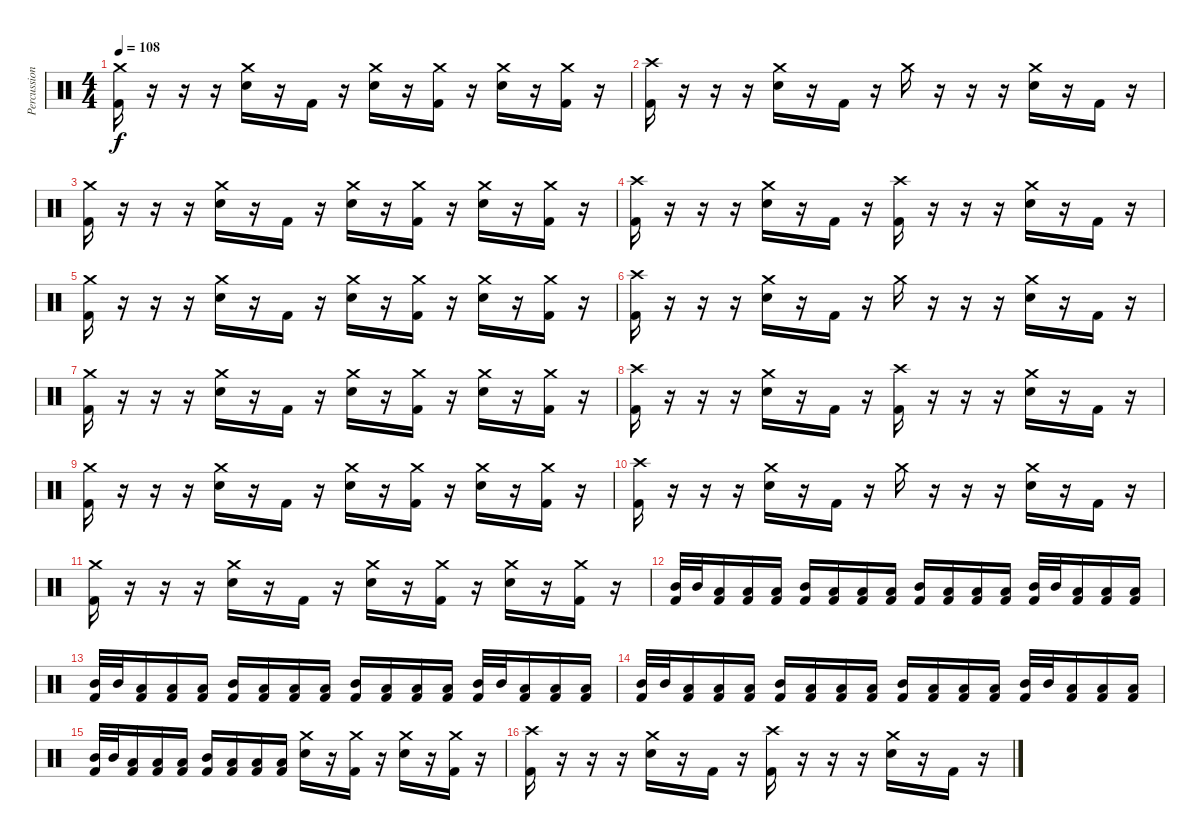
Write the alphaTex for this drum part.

\track ("Percussion" "Percussion") {instrument percussion}
\staff {score}
\articulation defaults
\ts (4 4)
\tempo 108
\clef neutral
\ks c
("Crash medium (hit)" "Kick (hit) 2").16{dy f} r.16 r.16 r.16 ("Crash medium (hit)" "Electric Snare (hit)").16 r.16 "Kick (hit) 2".16 r.16 ("Crash medium (hit)" "Electric Snare (hit)").16 r.16 ("Crash medium (hit)" "Kick (hit) 2").16 r.16 ("Crash medium (hit)" "Electric Snare (hit)").16 r.16 ("Crash medium (hit)" "Kick (hit) 2").16 r.16 |
("Crash high (hit)" "Kick (hit) 2").16 r.16 r.16 r.16 ("Crash medium (hit)" "Electric Snare (hit)").16 r.16 "Kick (hit) 2".16 r.16 "Crash medium (hit)".16 r.16 r.16 r.16 ("Crash medium (hit)" "Electric Snare (hit)").16 r.16 "Kick (hit) 2".16 r.16 |
("Crash medium (hit)" "Kick (hit) 2").16 r.16 r.16 r.16 ("Crash medium (hit)" "Electric Snare (hit)").16 r.16 "Kick (hit) 2".16 r.16 ("Crash medium (hit)" "Electric Snare (hit)").16 r.16 ("Crash medium (hit)" "Kick (hit) 2").16 r.16 ("Crash medium (hit)" "Electric Snare (hit)").16 r.16 ("Crash medium (hit)" "Kick (hit) 2").16 r.16 |
("Crash high (hit)" "Kick (hit) 2").16 r.16 r.16 r.16 ("Crash medium (hit)" "Electric Snare (hit)").16 r.16 "Kick (hit) 2".16 r.16 ("Crash high (hit)" "Kick (hit) 2").16 r.16 r.16 r.16 ("Crash medium (hit)" "Electric Snare (hit)").16 r.16 "Kick (hit) 2".16 r.16 |
("Crash medium (hit)" "Kick (hit) 2").16 r.16 r.16 r.16 ("Crash medium (hit)" "Electric Snare (hit)").16 r.16 "Kick (hit) 2".16 r.16 ("Crash medium (hit)" "Electric Snare (hit)").16 r.16 ("Crash medium (hit)" "Kick (hit) 2").16 r.16 ("Crash medium (hit)" "Electric Snare (hit)").16 r.16 ("Crash medium (hit)" "Kick (hit) 2").16 r.16 |
("Crash high (hit)" "Kick (hit) 2").16 r.16 r.16 r.16 ("Crash medium (hit)" "Electric Snare (hit)").16 r.16 "Kick (hit) 2".16 r.16 "Crash medium (hit)".16 r.16 r.16 r.16 ("Crash medium (hit)" "Electric Snare (hit)").16 r.16 "Kick (hit) 2".16 r.16 |
("Crash medium (hit)" "Kick (hit) 2").16 r.16 r.16 r.16 ("Crash medium (hit)" "Electric Snare (hit)").16 r.16 "Kick (hit) 2".16 r.16 ("Crash medium (hit)" "Electric Snare (hit)").16 r.16 ("Crash medium (hit)" "Kick (hit) 2").16 r.16 ("Crash medium (hit)" "Electric Snare (hit)").16 r.16 ("Crash medium (hit)" "Kick (hit) 2").16 r.16 |
("Crash high (hit)" "Kick (hit) 2").16 r.16 r.16 r.16 ("Crash medium (hit)" "Electric Snare (hit)").16 r.16 "Kick (hit) 2".16 r.16 ("Crash high (hit)" "Kick (hit) 2").16 r.16 r.16 r.16 ("Crash medium (hit)" "Electric Snare (hit)").16 r.16 "Kick (hit) 2".16 r.16 |
("Crash medium (hit)" "Kick (hit) 2").16 r.16 r.16 r.16 ("Crash medium (hit)" "Electric Snare (hit)").16 r.16 "Kick (hit) 2".16 r.16 ("Crash medium (hit)" "Electric Snare (hit)").16 r.16 ("Crash medium (hit)" "Kick (hit) 2").16 r.16 ("Crash medium (hit)" "Electric Snare (hit)").16 r.16 ("Crash medium (hit)" "Kick (hit) 2").16 r.16 |
("Crash high (hit)" "Kick (hit) 2").16 r.16 r.16 r.16 ("Crash medium (hit)" "Electric Snare (hit)").16 r.16 "Kick (hit) 2".16 r.16 "Crash medium (hit)".16 r.16 r.16 r.16 ("Crash medium (hit)" "Electric Snare (hit)").16 r.16 "Kick (hit) 2".16 r.16 |
("Crash medium (hit)" "Kick (hit) 2").16 r.16 r.16 r.16 ("Crash medium (hit)" "Electric Snare (hit)").16 r.16 "Kick (hit) 2".16 r.16 ("Crash medium (hit)" "Electric Snare (hit)").16 r.16 ("Crash medium (hit)" "Kick (hit) 2").16 r.16 ("Crash medium (hit)" "Electric Snare (hit)").16 r.16 ("Crash medium (hit)" "Kick (hit) 2").16 r.16 |
("Mid Tom (hit)" "Kick (hit) 2").32 "Mid Tom (hit)".32 ("Low Tom (hit)" "Kick (hit) 2").16 ("Low Floor Tom (hit)" "Kick (hit) 2").16 ("Low Floor Tom (hit)" "Kick (hit) 2").16 ("Mid Tom (hit)" "Kick (hit) 2").16 ("Low Tom (hit)" "Kick (hit) 2").16 ("Low Floor Tom (hit)" "Kick (hit) 2").16 ("Low Floor Tom (hit)" "Kick (hit) 2").16 ("Mid Tom (hit)" "Kick (hit) 2").16 ("Low Tom (hit)" "Kick (hit) 2").16 ("Low Floor Tom (hit)" "Kick (hit) 2").16 ("Low Floor Tom (hit)" "Kick (hit) 2").16 ("Mid Tom (hit)" "Kick (hit) 2").32 "Mid Tom (hit)".32 ("Low Tom (hit)" "Kick (hit) 2").16 ("Low Floor Tom (hit)" "Kick (hit) 2").16 ("Low Floor Tom (hit)" "Kick (hit) 2").16 |
("Mid Tom (hit)" "Kick (hit) 2").32 "Mid Tom (hit)".32 ("Low Tom (hit)" "Kick (hit) 2").16 ("Low Floor Tom (hit)" "Kick (hit) 2").16 ("Low Floor Tom (hit)" "Kick (hit) 2").16 ("Mid Tom (hit)" "Kick (hit) 2").16 ("Low Tom (hit)" "Kick (hit) 2").16 ("Low Floor Tom (hit)" "Kick (hit) 2").16 ("Low Floor Tom (hit)" "Kick (hit) 2").16 ("Mid Tom (hit)" "Kick (hit) 2").16 ("Low Tom (hit)" "Kick (hit) 2").16 ("Low Floor Tom (hit)" "Kick (hit) 2").16 ("Low Floor Tom (hit)" "Kick (hit) 2").16 ("Mid Tom (hit)" "Kick (hit) 2").32 "Mid Tom (hit)".32 ("Low Tom (hit)" "Kick (hit) 2").16 ("Low Floor Tom (hit)" "Kick (hit) 2").16 ("Low Floor Tom (hit)" "Kick (hit) 2").16 |
("Mid Tom (hit)" "Kick (hit) 2").32 "Mid Tom (hit)".32 ("Low Tom (hit)" "Kick (hit) 2").16 ("Low Floor Tom (hit)" "Kick (hit) 2").16 ("Low Floor Tom (hit)" "Kick (hit) 2").16 ("Mid Tom (hit)" "Kick (hit) 2").16 ("Low Tom (hit)" "Kick (hit) 2").16 ("Low Floor Tom (hit)" "Kick (hit) 2").16 ("Low Floor Tom (hit)" "Kick (hit) 2").16 ("Mid Tom (hit)" "Kick (hit) 2").16 ("Low Tom (hit)" "Kick (hit) 2").16 ("Low Floor Tom (hit)" "Kick (hit) 2").16 ("Low Floor Tom (hit)" "Kick (hit) 2").16 ("Mid Tom (hit)" "Kick (hit) 2").32 "Mid Tom (hit)".32 ("Low Tom (hit)" "Kick (hit) 2").16 ("Low Floor Tom (hit)" "Kick (hit) 2").16 ("Low Floor Tom (hit)" "Kick (hit) 2").16 |
("Mid Tom (hit)" "Kick (hit) 2").32 "Mid Tom (hit)".32 ("Low Tom (hit)" "Kick (hit) 2").16 ("Low Floor Tom (hit)" "Kick (hit) 2").16 ("Low Floor Tom (hit)" "Kick (hit) 2").16 ("Mid Tom (hit)" "Kick (hit) 2").16 ("Low Tom (hit)" "Kick (hit) 2").16 ("Low Floor Tom (hit)" "Kick (hit) 2").16 ("Low Floor Tom (hit)" "Kick (hit) 2").16 ("Crash medium (hit)" "Electric Snare (hit)").16 r.16 ("Crash medium (hit)" "Kick (hit) 2").16 r.16 ("Crash medium (hit)" "Electric Snare (hit)").16 r.16 ("Crash medium (hit)" "Kick (hit) 2").16 r.16 |
("Crash high (hit)" "Kick (hit) 2").16 r.16 r.16 r.16 ("Crash medium (hit)" "Electric Snare (hit)").16 r.16 "Kick (hit) 2".16 r.16 ("Crash high (hit)" "Kick (hit) 2").16 r.16 r.16 r.16 ("Crash medium (hit)" "Electric Snare (hit)").16 r.16 "Kick (hit) 2".16 r.16
